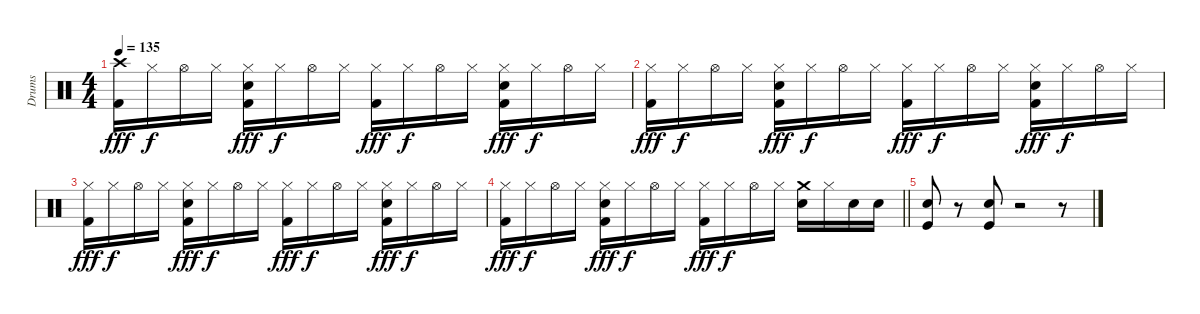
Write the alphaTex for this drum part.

\track ("Drums" "Drums") {instrument percussion}
\staff {score}
\articulation defaults
\ts (4 4)
\tempo 135
\clef neutral
\ks c
("Kick (hit) 2" "Crash high (hit)").16{dy fff} "Hi-Hat (closed)".16{dy f} "Hi-Hat (open)".16 "Hi-Hat (closed)".16 ("Kick (hit) 2" "Snare (hit) 2" "Hi-Hat (closed)").16{dy fff} "Hi-Hat (closed)".16{dy f} "Hi-Hat (open)".16 "Hi-Hat (closed)".16 ("Kick (hit) 2" "Hi-Hat (closed)").16{dy fff} "Hi-Hat (closed)".16{dy f} "Hi-Hat (open)".16 "Hi-Hat (closed)".16 ("Kick (hit) 2" "Snare (hit) 2" "Hi-Hat (closed)").16{dy fff} "Hi-Hat (closed)".16{dy f} "Hi-Hat (open)".16 "Hi-Hat (closed)".16 |
("Kick (hit) 2" "Hi-Hat (closed)").16{dy fff} "Hi-Hat (closed)".16{dy f} "Hi-Hat (open)".16 "Hi-Hat (closed)".16 ("Kick (hit) 2" "Snare (hit) 2" "Hi-Hat (closed)").16{dy fff} "Hi-Hat (closed)".16{dy f} "Hi-Hat (open)".16 "Hi-Hat (closed)".16 ("Kick (hit) 2" "Hi-Hat (closed)").16{dy fff} "Hi-Hat (closed)".16{dy f} "Hi-Hat (open)".16 "Hi-Hat (closed)".16 ("Kick (hit) 2" "Snare (hit) 2" "Hi-Hat (closed)").16{dy fff} "Hi-Hat (closed)".16{dy f} "Hi-Hat (open)".16 "Hi-Hat (closed)".16 |
("Kick (hit) 2" "Hi-Hat (closed)").16{dy fff} "Hi-Hat (closed)".16{dy f} "Hi-Hat (open)".16 "Hi-Hat (closed)".16 ("Kick (hit) 2" "Snare (hit) 2" "Hi-Hat (closed)").16{dy fff} "Hi-Hat (closed)".16{dy f} "Hi-Hat (open)".16 "Hi-Hat (closed)".16 ("Kick (hit) 2" "Hi-Hat (closed)").16{dy fff} "Hi-Hat (closed)".16{dy f} "Hi-Hat (open)".16 "Hi-Hat (closed)".16 ("Kick (hit) 2" "Snare (hit) 2" "Hi-Hat (closed)").16{dy fff} "Hi-Hat (closed)".16{dy f} "Hi-Hat (open)".16 "Hi-Hat (closed)".16 |
\barLineRight lightlight
("Kick (hit) 2" "Hi-Hat (closed)").16{dy fff} "Hi-Hat (closed)".16{dy f} "Hi-Hat (open)".16 "Hi-Hat (closed)".16 ("Kick (hit) 2" "Snare (hit) 2" "Hi-Hat (closed)").16{dy fff} "Hi-Hat (closed)".16{dy f} "Hi-Hat (open)".16 "Hi-Hat (closed)".16 ("Kick (hit) 2" "Hi-Hat (closed)").16{dy fff} "Hi-Hat (closed)".16{dy f} "Hi-Hat (open)".16 "Hi-Hat (closed)".16 ("Snare (hit) 2" "Crash medium (hit)").16 "Hi-Hat (closed)".16 "Snare (hit) 2".16 "Snare (hit) 2".16 |
("Kick (hit)" "Snare (hit) 2").8 r.8 ("Kick (hit)" "Snare (hit) 2").8 r.2 r.8
